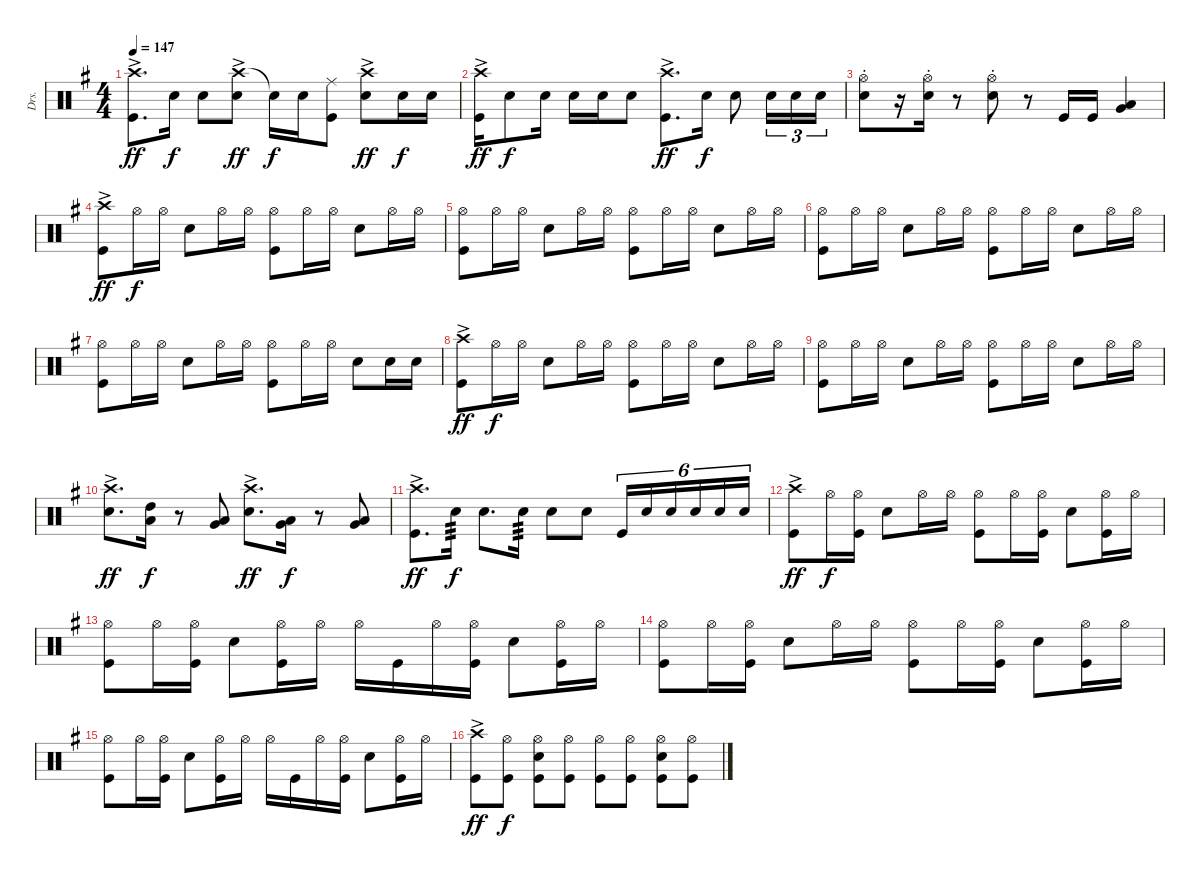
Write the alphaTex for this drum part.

\track ("Drs." "Drs.") {instrument percussion}
\staff {score}
\articulation defaults
\ts (4 4)
\tempo 147
\clef neutral
\ks g
("Crash high (hit)"{ac} "Kick (hit)").8{d dy ff} "Snare (hit) 2".16{dy f} "Snare (hit) 2".8 ("Crash high (hit)"{ac} "Snare (hit) 2").8{dy ff} "Snare (hit)"{t}.16{dy f} "Snare (hit) 2".16 ("Ride (middle)" "Kick (hit)").8 ("Crash high (hit)"{ac} "Snare (hit) 2").8{dy ff} "Snare (hit) 2".16{dy f} "Snare (hit) 2".16 |
("Crash high (hit)"{ac} "Kick (hit)").16{dy ff} "Snare (hit) 2".8{dy f} "Snare (hit) 2".16 "Snare (hit) 2".16 "Snare (hit) 2".16 "Snare (hit) 2".8 ("Crash high (hit)"{ac} "Kick (hit)").8{d dy ff} "Snare (hit) 2".16{dy f} "Snare (hit) 2".8 "Snare (hit) 2".16{tu (3 2)} "Snare (hit) 2".16{tu (3 2)} "Snare (hit) 2".16{tu (3 2)} |
("Hi-Hat (open)"{st} "Snare (hit) 2"{st}).8 r.16 ("Hi-Hat (open)"{st} "Snare (hit) 2"{st}).16 r.8 ("Hi-Hat (open)"{st} "Snare (hit) 2"{st}).8 r.8 "Kick (hit)".16 "Kick (hit)".16 ("Low Tom (hit)" "Very Low Tom (hit)").4 |
("Crash high (hit)"{ac} "Kick (hit)").8{dy ff} "Hi-Hat (open)".16{dy f} "Hi-Hat (open)".16 "Snare (hit) 2".8 "Hi-Hat (open)".16 "Hi-Hat (open)".16 ("Hi-Hat (open)" "Kick (hit)").8 "Hi-Hat (open)".16 "Hi-Hat (open)".16 "Snare (hit) 2".8 "Hi-Hat (open)".16 "Hi-Hat (open)".16 |
("Hi-Hat (open)" "Kick (hit)").8 "Hi-Hat (open)".16 "Hi-Hat (open)".16 "Snare (hit) 2".8 "Hi-Hat (open)".16 "Hi-Hat (open)".16 ("Hi-Hat (open)" "Kick (hit)").8 "Hi-Hat (open)".16 "Hi-Hat (open)".16 "Snare (hit) 2".8 "Hi-Hat (open)".16 "Hi-Hat (open)".16 |
("Hi-Hat (open)" "Kick (hit)").8 "Hi-Hat (open)".16 "Hi-Hat (open)".16 "Snare (hit) 2".8 "Hi-Hat (open)".16 "Hi-Hat (open)".16 ("Hi-Hat (open)" "Kick (hit)").8 "Hi-Hat (open)".16 "Hi-Hat (open)".16 "Snare (hit) 2".8 "Hi-Hat (open)".16 "Hi-Hat (open)".16 |
("Hi-Hat (open)" "Kick (hit)").8 "Hi-Hat (open)".16 "Hi-Hat (open)".16 "Snare (hit) 2".8 "Hi-Hat (open)".16 "Hi-Hat (open)".16 ("Hi-Hat (open)" "Kick (hit)").8 "Hi-Hat (open)".16 "Hi-Hat (open)".16 "Snare (hit) 2".8 "Snare (hit) 2".16 "Snare (hit) 2".16 |
("Crash high (hit)"{ac} "Kick (hit)").8{dy ff} "Hi-Hat (open)".16{dy f} "Hi-Hat (open)".16 "Snare (hit) 2".8 "Hi-Hat (open)".16 "Hi-Hat (open)".16 ("Hi-Hat (open)" "Kick (hit)").8 "Hi-Hat (open)".16 "Hi-Hat (open)".16 "Snare (hit) 2".8 "Hi-Hat (open)".16 "Hi-Hat (open)".16 |
("Hi-Hat (open)" "Kick (hit)").8 "Hi-Hat (open)".16 "Hi-Hat (open)".16 "Snare (hit) 2".8 "Hi-Hat (open)".16 "Hi-Hat (open)".16 ("Hi-Hat (open)" "Kick (hit)").8 "Hi-Hat (open)".16 "Hi-Hat (open)".16 "Snare (hit) 2".8 "Hi-Hat (open)".16 "Hi-Hat (open)".16 |
("Crash high (hit)"{ac} "Snare (hit) 2").8{d dy ff} ("High Tom (hit)" "Low Tom (hit)").16{dy f} r.8 ("Low Tom (hit)" "Very Low Tom (hit)").8 ("Crash high (hit)"{ac} "Snare (hit) 2").8{d dy ff} ("Low Tom (hit)" "Very Low Tom (hit)").16{dy f} r.8 ("Low Tom (hit)" "Very Low Tom (hit)").8 |
("Crash high (hit)"{ac} "Kick (hit)").8{d dy ff} "Snare (hit) 2".16{tp 3 dy f} "Snare (hit) 2".8{d} "Snare (hit) 2".16{tp 3} "Snare (hit) 2".8 "Snare (hit) 2".8 "Kick (hit)".16{tu (6 4)} "Snare (hit) 2".16{tu (6 4)} "Snare (hit) 2".16{tu (6 4)} "Snare (hit) 2".16{tu (6 4)} "Snare (hit) 2".16{tu (6 4)} "Snare (hit) 2".16{tu (6 4)} |
("Crash high (hit)"{ac} "Kick (hit)").8{dy ff} "Hi-Hat (open)".16{dy f} ("Hi-Hat (open)" "Kick (hit)").16 "Snare (hit) 2".8 "Hi-Hat (open)".16 "Hi-Hat (open)".16 ("Hi-Hat (open)" "Kick (hit)").8 "Hi-Hat (open)".16 ("Hi-Hat (open)" "Kick (hit)").16 "Snare (hit) 2".8 ("Hi-Hat (open)" "Kick (hit)").16 "Hi-Hat (open)".16 |
("Hi-Hat (open)" "Kick (hit)").8 "Hi-Hat (open)".16 ("Hi-Hat (open)" "Kick (hit)").16 "Snare (hit) 2".8 ("Hi-Hat (open)" "Kick (hit)").16 "Hi-Hat (open)".16 "Hi-Hat (open)".16 "Kick (hit)".16 "Hi-Hat (open)".16 ("Hi-Hat (open)" "Kick (hit)").16 "Snare (hit) 2".8 ("Hi-Hat (open)" "Kick (hit)").16 "Hi-Hat (open)".16 |
("Hi-Hat (open)" "Kick (hit)").8 "Hi-Hat (open)".16 ("Hi-Hat (open)" "Kick (hit)").16 "Snare (hit) 2".8 "Hi-Hat (open)".16 "Hi-Hat (open)".16 ("Hi-Hat (open)" "Kick (hit)").8 "Hi-Hat (open)".16 ("Hi-Hat (open)" "Kick (hit)").16 "Snare (hit) 2".8 ("Hi-Hat (open)" "Kick (hit)").16 "Hi-Hat (open)".16 |
("Hi-Hat (open)" "Kick (hit)").8 "Hi-Hat (open)".16 ("Hi-Hat (open)" "Kick (hit)").16 "Snare (hit) 2".8 ("Hi-Hat (open)" "Kick (hit)").16 "Hi-Hat (open)".16 "Hi-Hat (open)".16 "Kick (hit)".16 "Hi-Hat (open)".16 ("Hi-Hat (open)" "Kick (hit)").16 "Snare (hit) 2".8 ("Hi-Hat (open)" "Kick (hit)").16 "Hi-Hat (open)".16 |
("Crash high (hit)"{ac} "Kick (hit)").8{dy ff} ("Hi-Hat (open)" "Kick (hit)").8{dy f} ("Hi-Hat (open)" "Snare (hit) 2" "Kick (hit)").8 ("Hi-Hat (open)" "Kick (hit)").8 ("Hi-Hat (open)" "Kick (hit)").8 ("Hi-Hat (open)" "Kick (hit)").8 ("Hi-Hat (open)" "Snare (hit) 2" "Kick (hit)").8 ("Hi-Hat (open)" "Kick (hit)").8
